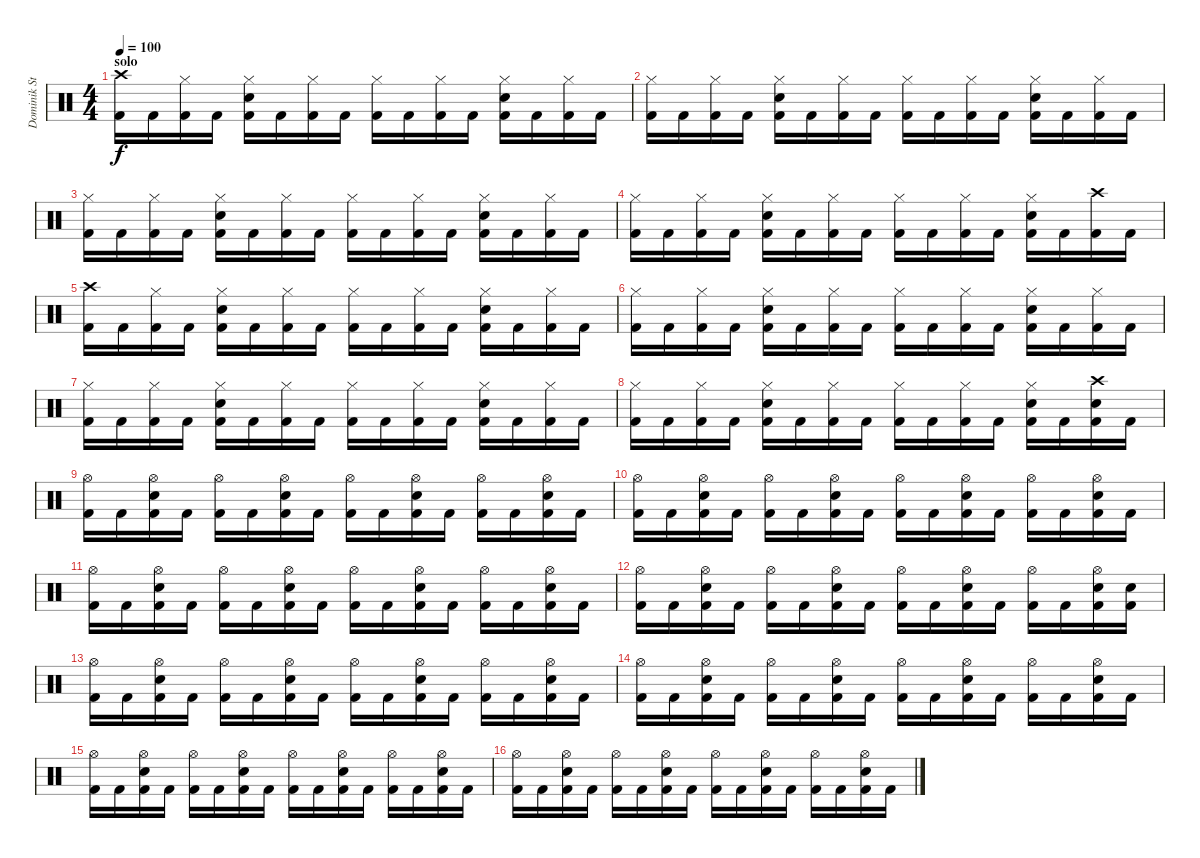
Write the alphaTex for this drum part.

\track ("Dominik Storch" "Dominik St") {instrument percussion}
\staff {score}
\articulation defaults
\ts (4 4)
\section ("" "solo")
\tempo 100
\clef neutral
\ks c
("Crash high (hit)" "Kick (hit) 2").16{dy f} "Kick (hit) 2".16 ("Hi-Hat (closed)" "Kick (hit) 2").16 "Kick (hit) 2".16 ("Hi-Hat (closed)" "Snare (hit) 2" "Kick (hit) 2").16 "Kick (hit) 2".16 ("Hi-Hat (closed)" "Kick (hit) 2").16 "Kick (hit) 2".16 ("Hi-Hat (closed)" "Kick (hit) 2").16 "Kick (hit) 2".16 ("Hi-Hat (closed)" "Kick (hit) 2").16 "Kick (hit) 2".16 ("Hi-Hat (closed)" "Snare (hit) 2" "Kick (hit) 2").16 "Kick (hit) 2".16 ("Hi-Hat (closed)" "Kick (hit) 2").16 "Kick (hit) 2".16 |
("Hi-Hat (closed)" "Kick (hit) 2").16 "Kick (hit) 2".16 ("Hi-Hat (closed)" "Kick (hit) 2").16 "Kick (hit) 2".16 ("Hi-Hat (closed)" "Snare (hit) 2" "Kick (hit) 2").16 "Kick (hit) 2".16 ("Hi-Hat (closed)" "Kick (hit) 2").16 "Kick (hit) 2".16 ("Hi-Hat (closed)" "Kick (hit) 2").16 "Kick (hit) 2".16 ("Hi-Hat (closed)" "Kick (hit) 2").16 "Kick (hit) 2".16 ("Hi-Hat (closed)" "Snare (hit) 2" "Kick (hit) 2").16 "Kick (hit) 2".16 ("Hi-Hat (closed)" "Kick (hit) 2").16 "Kick (hit) 2".16 |
("Hi-Hat (closed)" "Kick (hit) 2").16 "Kick (hit) 2".16 ("Hi-Hat (closed)" "Kick (hit) 2").16 "Kick (hit) 2".16 ("Hi-Hat (closed)" "Snare (hit) 2" "Kick (hit) 2").16 "Kick (hit) 2".16 ("Hi-Hat (closed)" "Kick (hit) 2").16 "Kick (hit) 2".16 ("Hi-Hat (closed)" "Kick (hit) 2").16 "Kick (hit) 2".16 ("Hi-Hat (closed)" "Kick (hit) 2").16 "Kick (hit) 2".16 ("Hi-Hat (closed)" "Snare (hit) 2" "Kick (hit) 2").16 "Kick (hit) 2".16 ("Hi-Hat (closed)" "Kick (hit) 2").16 "Kick (hit) 2".16 |
("Hi-Hat (closed)" "Kick (hit) 2").16 "Kick (hit) 2".16 ("Hi-Hat (closed)" "Kick (hit) 2").16 "Kick (hit) 2".16 ("Hi-Hat (closed)" "Snare (hit) 2" "Kick (hit) 2").16 "Kick (hit) 2".16 ("Hi-Hat (closed)" "Kick (hit) 2").16 "Kick (hit) 2".16 ("Hi-Hat (closed)" "Kick (hit) 2").16 "Kick (hit) 2".16 ("Hi-Hat (closed)" "Kick (hit) 2").16 "Kick (hit) 2".16 ("Hi-Hat (closed)" "Snare (hit) 2" "Kick (hit) 2").16 "Kick (hit) 2".16 ("Crash high (hit)" "Kick (hit) 2").16 "Kick (hit) 2".16 |
("Crash high (hit)" "Kick (hit) 2").16 "Kick (hit) 2".16 ("Hi-Hat (closed)" "Kick (hit) 2").16 "Kick (hit) 2".16 ("Hi-Hat (closed)" "Snare (hit) 2" "Kick (hit) 2").16 "Kick (hit) 2".16 ("Hi-Hat (closed)" "Kick (hit) 2").16 "Kick (hit) 2".16 ("Hi-Hat (closed)" "Kick (hit) 2").16 "Kick (hit) 2".16 ("Hi-Hat (closed)" "Kick (hit) 2").16 "Kick (hit) 2".16 ("Hi-Hat (closed)" "Snare (hit) 2" "Kick (hit) 2").16 "Kick (hit) 2".16 ("Hi-Hat (closed)" "Kick (hit) 2").16 "Kick (hit) 2".16 |
("Hi-Hat (closed)" "Kick (hit) 2").16 "Kick (hit) 2".16 ("Hi-Hat (closed)" "Kick (hit) 2").16 "Kick (hit) 2".16 ("Hi-Hat (closed)" "Snare (hit) 2" "Kick (hit) 2").16 "Kick (hit) 2".16 ("Hi-Hat (closed)" "Kick (hit) 2").16 "Kick (hit) 2".16 ("Hi-Hat (closed)" "Kick (hit) 2").16 "Kick (hit) 2".16 ("Hi-Hat (closed)" "Kick (hit) 2").16 "Kick (hit) 2".16 ("Hi-Hat (closed)" "Snare (hit) 2" "Kick (hit) 2").16 "Kick (hit) 2".16 ("Hi-Hat (closed)" "Kick (hit) 2").16 "Kick (hit) 2".16 |
("Hi-Hat (closed)" "Kick (hit) 2").16 "Kick (hit) 2".16 ("Hi-Hat (closed)" "Kick (hit) 2").16 "Kick (hit) 2".16 ("Hi-Hat (closed)" "Snare (hit) 2" "Kick (hit) 2").16 "Kick (hit) 2".16 ("Hi-Hat (closed)" "Kick (hit) 2").16 "Kick (hit) 2".16 ("Hi-Hat (closed)" "Kick (hit) 2").16 "Kick (hit) 2".16 ("Hi-Hat (closed)" "Kick (hit) 2").16 "Kick (hit) 2".16 ("Hi-Hat (closed)" "Snare (hit) 2" "Kick (hit) 2").16 "Kick (hit) 2".16 ("Hi-Hat (closed)" "Kick (hit) 2").16 "Kick (hit) 2".16 |
("Hi-Hat (closed)" "Kick (hit) 2").16 "Kick (hit) 2".16 ("Hi-Hat (closed)" "Kick (hit) 2").16 "Kick (hit) 2".16 ("Hi-Hat (closed)" "Snare (hit) 2" "Kick (hit) 2").16 "Kick (hit) 2".16 ("Hi-Hat (closed)" "Kick (hit) 2").16 "Kick (hit) 2".16 ("Hi-Hat (closed)" "Kick (hit) 2").16 "Kick (hit) 2".16 ("Hi-Hat (closed)" "Kick (hit) 2").16 "Kick (hit) 2".16 ("Hi-Hat (closed)" "Snare (hit) 2" "Kick (hit) 2").16 "Kick (hit) 2".16 ("Crash high (hit)" "Snare (hit) 2" "Kick (hit) 2").16 "Kick (hit) 2".16 |
("Hi-Hat (open)" "Kick (hit) 2").16 "Kick (hit) 2".16 ("Hi-Hat (open)" "Snare (hit) 2" "Kick (hit) 2").16 "Kick (hit) 2".16 ("Hi-Hat (open)" "Kick (hit) 2").16 "Kick (hit) 2".16 ("Hi-Hat (open)" "Snare (hit) 2" "Kick (hit) 2").16 "Kick (hit) 2".16 ("Hi-Hat (open)" "Kick (hit) 2").16 "Kick (hit) 2".16 ("Hi-Hat (open)" "Snare (hit) 2" "Kick (hit) 2").16 "Kick (hit) 2".16 ("Hi-Hat (open)" "Kick (hit) 2").16 "Kick (hit) 2".16 ("Hi-Hat (open)" "Snare (hit) 2" "Kick (hit) 2").16 "Kick (hit) 2".16 |
("Hi-Hat (open)" "Kick (hit) 2").16 "Kick (hit) 2".16 ("Hi-Hat (open)" "Snare (hit) 2" "Kick (hit) 2").16 "Kick (hit) 2".16 ("Hi-Hat (open)" "Kick (hit) 2").16 "Kick (hit) 2".16 ("Hi-Hat (open)" "Snare (hit) 2" "Kick (hit) 2").16 "Kick (hit) 2".16 ("Hi-Hat (open)" "Kick (hit) 2").16 "Kick (hit) 2".16 ("Hi-Hat (open)" "Snare (hit) 2" "Kick (hit) 2").16 "Kick (hit) 2".16 ("Hi-Hat (open)" "Kick (hit) 2").16 "Kick (hit) 2".16 ("Hi-Hat (open)" "Snare (hit) 2" "Kick (hit) 2").16 "Kick (hit) 2".16 |
("Hi-Hat (open)" "Kick (hit) 2").16 "Kick (hit) 2".16 ("Hi-Hat (open)" "Snare (hit) 2" "Kick (hit) 2").16 "Kick (hit) 2".16 ("Hi-Hat (open)" "Kick (hit) 2").16 "Kick (hit) 2".16 ("Hi-Hat (open)" "Snare (hit) 2" "Kick (hit) 2").16 "Kick (hit) 2".16 ("Hi-Hat (open)" "Kick (hit) 2").16 "Kick (hit) 2".16 ("Hi-Hat (open)" "Snare (hit) 2" "Kick (hit) 2").16 "Kick (hit) 2".16 ("Hi-Hat (open)" "Kick (hit) 2").16 "Kick (hit) 2".16 ("Hi-Hat (open)" "Snare (hit) 2" "Kick (hit) 2").16 "Kick (hit) 2".16 |
("Hi-Hat (open)" "Kick (hit) 2").16 "Kick (hit) 2".16 ("Hi-Hat (open)" "Snare (hit) 2" "Kick (hit) 2").16 "Kick (hit) 2".16 ("Hi-Hat (open)" "Kick (hit) 2").16 "Kick (hit) 2".16 ("Hi-Hat (open)" "Snare (hit) 2" "Kick (hit) 2").16 "Kick (hit) 2".16 ("Hi-Hat (open)" "Kick (hit) 2").16 "Kick (hit) 2".16 ("Hi-Hat (open)" "Snare (hit) 2" "Kick (hit) 2").16 "Kick (hit) 2".16 ("Hi-Hat (open)" "Kick (hit) 2").16 "Kick (hit) 2".16 ("Hi-Hat (open)" "Snare (hit) 2" "Kick (hit) 2").16 ("Snare (hit) 2" "Kick (hit) 2").16 |
("Hi-Hat (open)" "Kick (hit) 2").16 "Kick (hit) 2".16 ("Hi-Hat (open)" "Snare (hit) 2" "Kick (hit) 2").16 "Kick (hit) 2".16 ("Hi-Hat (open)" "Kick (hit) 2").16 "Kick (hit) 2".16 ("Hi-Hat (open)" "Snare (hit) 2" "Kick (hit) 2").16 "Kick (hit) 2".16 ("Hi-Hat (open)" "Kick (hit) 2").16 "Kick (hit) 2".16 ("Hi-Hat (open)" "Snare (hit) 2" "Kick (hit) 2").16 "Kick (hit) 2".16 ("Hi-Hat (open)" "Kick (hit) 2").16 "Kick (hit) 2".16 ("Hi-Hat (open)" "Snare (hit) 2" "Kick (hit) 2").16 "Kick (hit) 2".16 |
("Hi-Hat (open)" "Kick (hit) 2").16 "Kick (hit) 2".16 ("Hi-Hat (open)" "Snare (hit) 2" "Kick (hit) 2").16 "Kick (hit) 2".16 ("Hi-Hat (open)" "Kick (hit) 2").16 "Kick (hit) 2".16 ("Hi-Hat (open)" "Snare (hit) 2" "Kick (hit) 2").16 "Kick (hit) 2".16 ("Hi-Hat (open)" "Kick (hit) 2").16 "Kick (hit) 2".16 ("Hi-Hat (open)" "Snare (hit) 2" "Kick (hit) 2").16 "Kick (hit) 2".16 ("Hi-Hat (open)" "Kick (hit) 2").16 "Kick (hit) 2".16 ("Hi-Hat (open)" "Snare (hit) 2" "Kick (hit) 2").16 "Kick (hit) 2".16 |
("Hi-Hat (open)" "Kick (hit) 2").16 "Kick (hit) 2".16 ("Hi-Hat (open)" "Snare (hit) 2" "Kick (hit) 2").16 "Kick (hit) 2".16 ("Hi-Hat (open)" "Kick (hit) 2").16 "Kick (hit) 2".16 ("Hi-Hat (open)" "Snare (hit) 2" "Kick (hit) 2").16 "Kick (hit) 2".16 ("Hi-Hat (open)" "Kick (hit) 2").16 "Kick (hit) 2".16 ("Hi-Hat (open)" "Snare (hit) 2" "Kick (hit) 2").16 "Kick (hit) 2".16 ("Hi-Hat (open)" "Kick (hit) 2").16 "Kick (hit) 2".16 ("Hi-Hat (open)" "Snare (hit) 2" "Kick (hit) 2").16 "Kick (hit) 2".16 |
("Hi-Hat (open)" "Kick (hit) 2").16 "Kick (hit) 2".16 ("Hi-Hat (open)" "Snare (hit) 2" "Kick (hit) 2").16 "Kick (hit) 2".16 ("Hi-Hat (open)" "Kick (hit) 2").16 "Kick (hit) 2".16 ("Hi-Hat (open)" "Snare (hit) 2" "Kick (hit) 2").16 "Kick (hit) 2".16 ("Hi-Hat (open)" "Kick (hit) 2").16 "Kick (hit) 2".16 ("Hi-Hat (open)" "Snare (hit) 2" "Kick (hit) 2").16 "Kick (hit) 2".16 ("Hi-Hat (open)" "Kick (hit) 2").16 "Kick (hit) 2".16 ("Hi-Hat (open)" "Snare (hit) 2" "Kick (hit) 2").16 "Kick (hit) 2".16
